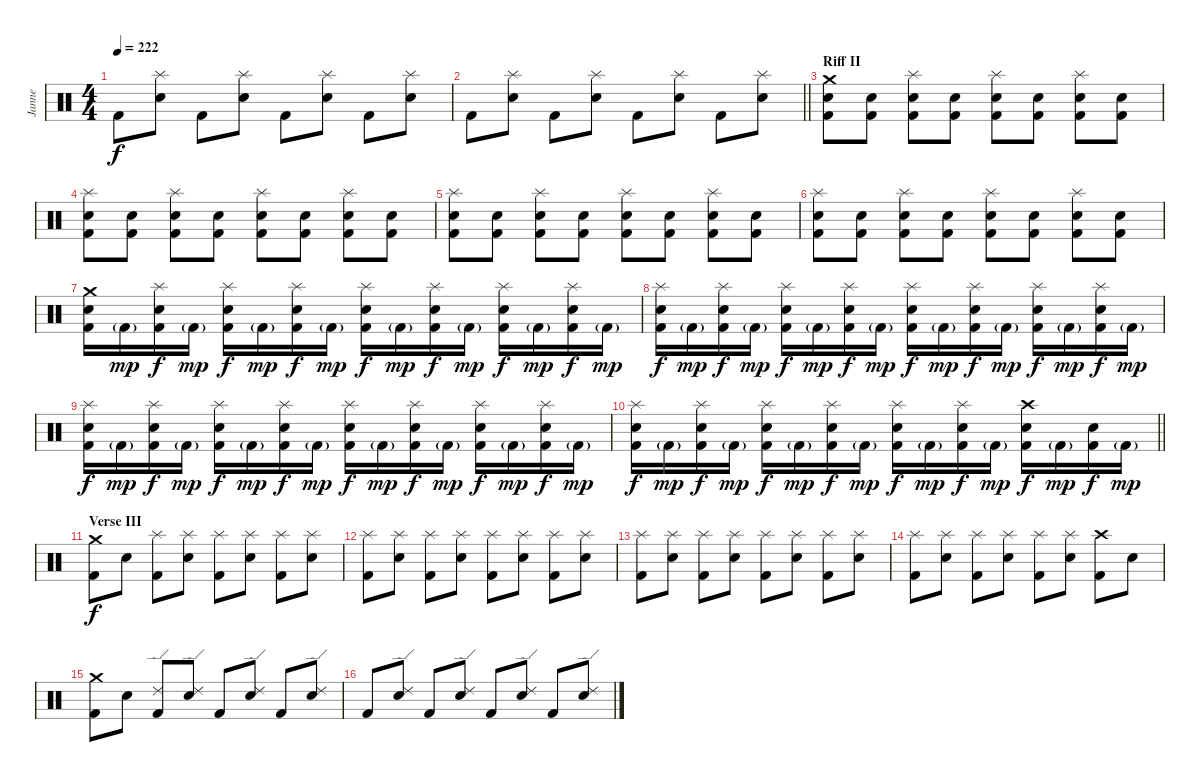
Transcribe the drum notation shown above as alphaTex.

\track ("Janne" "Janne") {instrument percussion}
\staff {score}
\articulation defaults
\ts (4 4)
\tempo 222
\clef neutral
\ks c "Kick (hit) 2".8{dy f}
("Electric Snare (hit)" "Splash (hit)").8 "Kick (hit) 2".8 ("Electric Snare (hit)" "Splash (hit)").8 "Kick (hit) 2".8 ("Electric Snare (hit)" "Splash (hit)").8 "Kick (hit) 2".8 ("Electric Snare (hit)" "Splash (hit)").8 |
\barLineRight lightlight "Kick (hit) 2".8
("Electric Snare (hit)" "Splash (hit)").8 "Kick (hit) 2".8 ("Electric Snare (hit)" "Splash (hit)").8 "Kick (hit) 2".8 ("Electric Snare (hit)" "Splash (hit)").8 "Kick (hit) 2".8 ("Electric Snare (hit)" "Splash (hit)").8 |
\section ("" "Riff II")
("Kick (hit) 2" "Electric Snare (hit)" "Crash medium (hit)").8 ("Kick (hit) 2" "Electric Snare (hit)").8 ("Kick (hit) 2" "Electric Snare (hit)" "Splash (hit)").8 ("Kick (hit) 2" "Electric Snare (hit)").8 ("Kick (hit) 2" "Electric Snare (hit)" "Splash (hit)").8 ("Kick (hit) 2" "Electric Snare (hit)").8 ("Kick (hit) 2" "Electric Snare (hit)" "Splash (hit)").8 ("Kick (hit) 2" "Electric Snare (hit)").8 |
("Kick (hit) 2" "Electric Snare (hit)" "Splash (hit)").8 ("Kick (hit) 2" "Electric Snare (hit)").8 ("Kick (hit) 2" "Electric Snare (hit)" "Splash (hit)").8 ("Kick (hit) 2" "Electric Snare (hit)").8 ("Kick (hit) 2" "Electric Snare (hit)" "Splash (hit)").8 ("Kick (hit) 2" "Electric Snare (hit)").8 ("Kick (hit) 2" "Electric Snare (hit)" "Splash (hit)").8 ("Kick (hit) 2" "Electric Snare (hit)").8 |
("Kick (hit) 2" "Electric Snare (hit)" "Splash (hit)").8 ("Kick (hit) 2" "Electric Snare (hit)").8 ("Kick (hit) 2" "Electric Snare (hit)" "Splash (hit)").8 ("Kick (hit) 2" "Electric Snare (hit)").8 ("Kick (hit) 2" "Electric Snare (hit)" "Splash (hit)").8 ("Kick (hit) 2" "Electric Snare (hit)").8 ("Kick (hit) 2" "Electric Snare (hit)" "Splash (hit)").8 ("Kick (hit) 2" "Electric Snare (hit)").8 |
("Kick (hit) 2" "Electric Snare (hit)" "Splash (hit)").8 ("Kick (hit) 2" "Electric Snare (hit)").8 ("Kick (hit) 2" "Electric Snare (hit)" "Splash (hit)").8 ("Kick (hit) 2" "Electric Snare (hit)").8 ("Kick (hit) 2" "Electric Snare (hit)" "Splash (hit)").8 ("Kick (hit) 2" "Electric Snare (hit)").8 ("Kick (hit) 2" "Electric Snare (hit)" "Splash (hit)").8 ("Kick (hit) 2" "Electric Snare (hit)").8 |
("Kick (hit) 2" "Electric Snare (hit)" "Crash medium (hit)").16 "Kick (hit) 2"{g}.16{dy mp} ("Kick (hit) 2" "Electric Snare (hit)" "Splash (hit)").16{dy f} "Kick (hit) 2"{g}.16{dy mp} ("Kick (hit) 2" "Electric Snare (hit)" "Splash (hit)").16{dy f} "Kick (hit) 2"{g}.16{dy mp} ("Kick (hit) 2" "Electric Snare (hit)" "Splash (hit)").16{dy f} "Kick (hit) 2"{g}.16{dy mp} ("Kick (hit) 2" "Electric Snare (hit)" "Splash (hit)").16{dy f} "Kick (hit) 2"{g}.16{dy mp} ("Kick (hit) 2" "Electric Snare (hit)" "Splash (hit)").16{dy f} "Kick (hit) 2"{g}.16{dy mp} ("Kick (hit) 2" "Electric Snare (hit)" "Splash (hit)").16{dy f} "Kick (hit) 2"{g}.16{dy mp} ("Kick (hit) 2" "Electric Snare (hit)" "Splash (hit)").16{dy f} "Kick (hit) 2"{g}.16{dy mp} |
("Kick (hit) 2" "Electric Snare (hit)" "Splash (hit)").16{dy f} "Kick (hit) 2"{g}.16{dy mp} ("Kick (hit) 2" "Electric Snare (hit)" "Splash (hit)").16{dy f} "Kick (hit) 2"{g}.16{dy mp} ("Kick (hit) 2" "Electric Snare (hit)" "Splash (hit)").16{dy f} "Kick (hit) 2"{g}.16{dy mp} ("Kick (hit) 2" "Electric Snare (hit)" "Splash (hit)").16{dy f} "Kick (hit) 2"{g}.16{dy mp} ("Kick (hit) 2" "Electric Snare (hit)" "Splash (hit)").16{dy f} "Kick (hit) 2"{g}.16{dy mp} ("Kick (hit) 2" "Electric Snare (hit)" "Splash (hit)").16{dy f} "Kick (hit) 2"{g}.16{dy mp} ("Kick (hit) 2" "Electric Snare (hit)" "Splash (hit)").16{dy f} "Kick (hit) 2"{g}.16{dy mp} ("Kick (hit) 2" "Electric Snare (hit)" "Splash (hit)").16{dy f} "Kick (hit) 2"{g}.16{dy mp} |
("Kick (hit) 2" "Electric Snare (hit)" "Splash (hit)").16{dy f} "Kick (hit) 2"{g}.16{dy mp} ("Kick (hit) 2" "Electric Snare (hit)" "Splash (hit)").16{dy f} "Kick (hit) 2"{g}.16{dy mp} ("Kick (hit) 2" "Electric Snare (hit)" "Splash (hit)").16{dy f} "Kick (hit) 2"{g}.16{dy mp} ("Kick (hit) 2" "Electric Snare (hit)" "Splash (hit)").16{dy f} "Kick (hit) 2"{g}.16{dy mp} ("Kick (hit) 2" "Electric Snare (hit)" "Splash (hit)").16{dy f} "Kick (hit) 2"{g}.16{dy mp} ("Kick (hit) 2" "Electric Snare (hit)" "Splash (hit)").16{dy f} "Kick (hit) 2"{g}.16{dy mp} ("Kick (hit) 2" "Electric Snare (hit)" "Splash (hit)").16{dy f} "Kick (hit) 2"{g}.16{dy mp} ("Kick (hit) 2" "Electric Snare (hit)" "Splash (hit)").16{dy f} "Kick (hit) 2"{g}.16{dy mp} |
\barLineRight lightlight
("Kick (hit) 2" "Electric Snare (hit)" "Splash (hit)").16{dy f} "Kick (hit) 2"{g}.16{dy mp} ("Kick (hit) 2" "Electric Snare (hit)" "Splash (hit)").16{dy f} "Kick (hit) 2"{g}.16{dy mp} ("Kick (hit) 2" "Electric Snare (hit)" "Splash (hit)").16{dy f} "Kick (hit) 2"{g}.16{dy mp} ("Kick (hit) 2" "Electric Snare (hit)" "Splash (hit)").16{dy f} "Kick (hit) 2"{g}.16{dy mp} ("Kick (hit) 2" "Electric Snare (hit)" "Splash (hit)").16{dy f} "Kick (hit) 2"{g}.16{dy mp} ("Kick (hit) 2" "Electric Snare (hit)" "Splash (hit)").16{dy f} "Kick (hit) 2"{g}.16{dy mp} ("Kick (hit) 2" "Electric Snare (hit)" "Crash high (hit)").16{dy f} "Kick (hit) 2"{g}.16{dy mp} ("Kick (hit) 2" "Electric Snare (hit)").16{dy f} "Kick (hit) 2"{g}.16{dy mp} |
\section ("" "Verse III")
("Kick (hit) 2" "Crash medium (hit)").8{dy f} "Electric Snare (hit)".8 ("Kick (hit) 2" "Splash (hit)").8 ("Electric Snare (hit)" "Splash (hit)").8 ("Kick (hit) 2" "Splash (hit)").8 ("Electric Snare (hit)" "Splash (hit)").8 ("Kick (hit) 2" "Splash (hit)").8 ("Electric Snare (hit)" "Splash (hit)").8 |
("Kick (hit) 2" "Splash (hit)").8 ("Electric Snare (hit)" "Splash (hit)").8 ("Kick (hit) 2" "Splash (hit)").8 ("Electric Snare (hit)" "Splash (hit)").8 ("Kick (hit) 2" "Splash (hit)").8 ("Electric Snare (hit)" "Splash (hit)").8 ("Kick (hit) 2" "Splash (hit)").8 ("Electric Snare (hit)" "Splash (hit)").8 |
("Kick (hit) 2" "Splash (hit)").8 ("Electric Snare (hit)" "Splash (hit)").8 ("Kick (hit) 2" "Splash (hit)").8 ("Electric Snare (hit)" "Splash (hit)").8 ("Kick (hit) 2" "Splash (hit)").8 ("Electric Snare (hit)" "Splash (hit)").8 ("Kick (hit) 2" "Splash (hit)").8 ("Electric Snare (hit)" "Splash (hit)").8 |
("Kick (hit) 2" "Splash (hit)").8 ("Electric Snare (hit)" "Splash (hit)").8 ("Kick (hit) 2" "Splash (hit)").8 ("Electric Snare (hit)" "Splash (hit)").8 ("Kick (hit) 2" "Splash (hit)").8 ("Electric Snare (hit)" "Splash (hit)").8 ("Kick (hit) 2" "Crash high (hit)").8 "Electric Snare (hit)".8 |
("Kick (hit) 2" "Crash medium (hit)").8 "Electric Snare (hit)".8 ("Kick (hit) 2" "Ride (edge) 2").8 ("Electric Snare (hit)" "Ride (edge) 2").8 "Kick (hit) 2".8 ("Electric Snare (hit)" "Ride (edge) 2").8 "Kick (hit) 2".8 ("Electric Snare (hit)" "Ride (edge) 2").8 |
"Kick (hit) 2".8 ("Electric Snare (hit)" "Ride (edge) 2").8 "Kick (hit) 2".8 ("Electric Snare (hit)" "Ride (edge) 2").8 "Kick (hit) 2".8 ("Electric Snare (hit)" "Ride (edge) 2").8 "Kick (hit) 2".8 ("Electric Snare (hit)" "Ride (edge) 2").8
